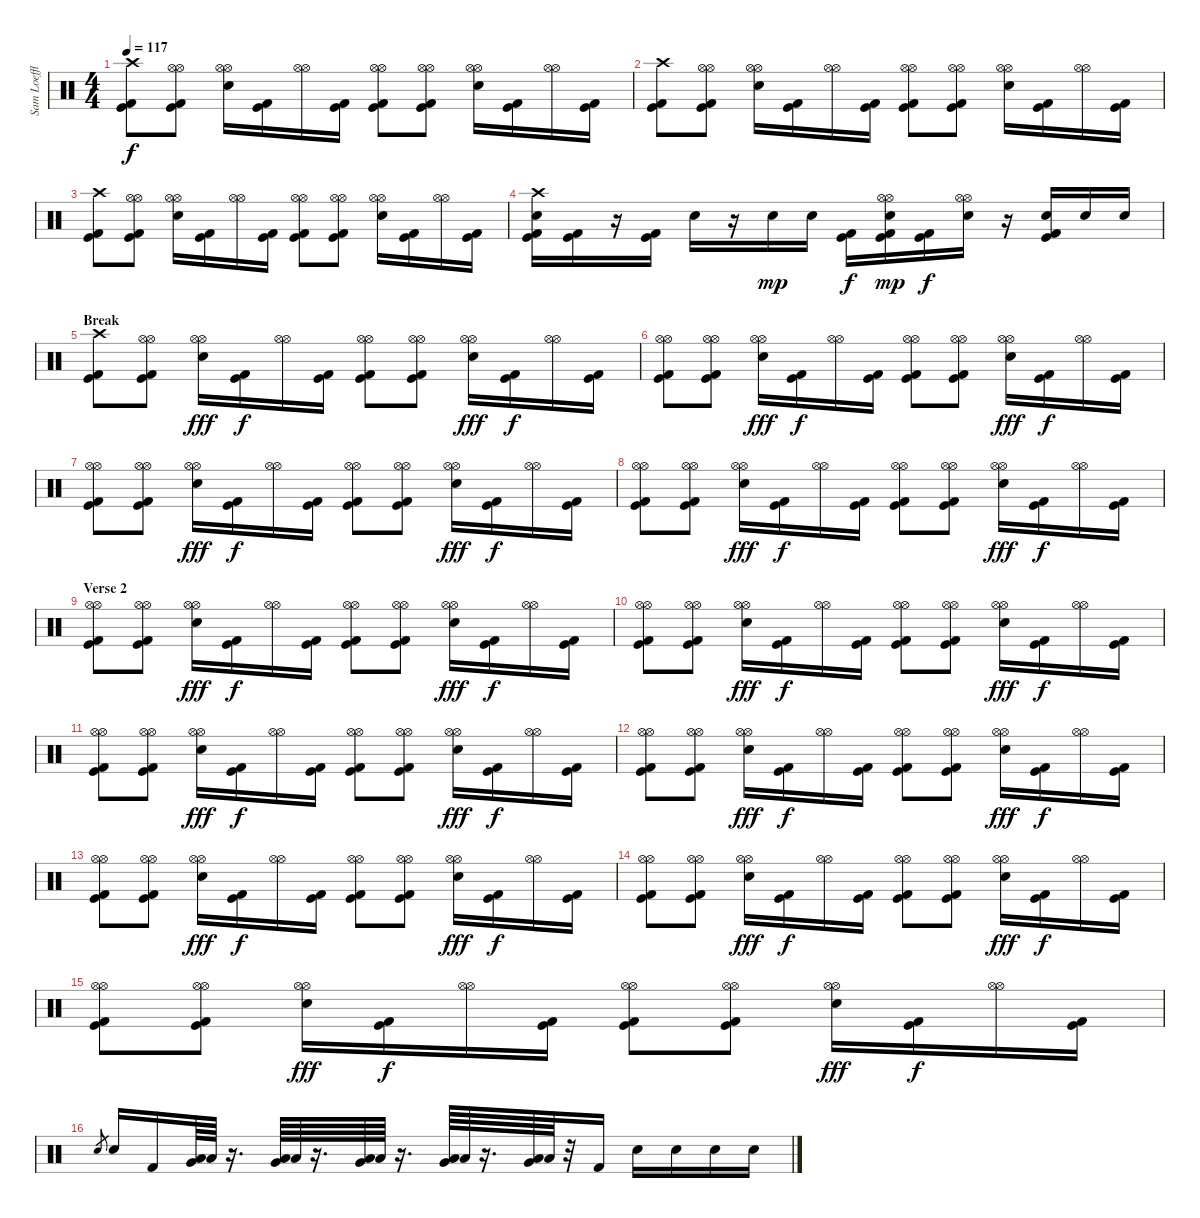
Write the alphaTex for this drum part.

\track ("Sam Loeffler - Drums" "Sam Loeffl") {instrument percussion}
\staff {score}
\articulation defaults
\ts (4 4)
\tempo 117
\clef neutral
\ks c
("Crash high (hit)" "Kick (hit)" "Kick (hit) 2").8{dy f} ("Hi-Hat (open)" "Hi-Hat (open)" "Kick (hit)" "Kick (hit) 2").8 ("Hi-Hat (open)" "Hi-Hat (open)" "Electric Snare (hit)").16 ("Kick (hit)" "Kick (hit) 2").16 ("Hi-Hat (open)" "Hi-Hat (open)").16 ("Kick (hit)" "Kick (hit) 2").16 ("Hi-Hat (open)" "Hi-Hat (open)" "Kick (hit)" "Kick (hit) 2").8 ("Hi-Hat (open)" "Hi-Hat (open)" "Kick (hit)" "Kick (hit) 2").8 ("Hi-Hat (open)" "Hi-Hat (open)" "Electric Snare (hit)").16 ("Kick (hit)" "Kick (hit) 2").16 ("Hi-Hat (open)" "Hi-Hat (open)").16 ("Kick (hit)" "Kick (hit) 2").16 |
("Crash high (hit)" "Kick (hit)" "Kick (hit) 2").8 ("Hi-Hat (open)" "Hi-Hat (open)" "Kick (hit)" "Kick (hit) 2").8 ("Hi-Hat (open)" "Hi-Hat (open)" "Electric Snare (hit)").16 ("Kick (hit)" "Kick (hit) 2").16 ("Hi-Hat (open)" "Hi-Hat (open)").16 ("Kick (hit)" "Kick (hit) 2").16 ("Hi-Hat (open)" "Hi-Hat (open)" "Kick (hit)" "Kick (hit) 2").8 ("Hi-Hat (open)" "Hi-Hat (open)" "Kick (hit)" "Kick (hit) 2").8 ("Hi-Hat (open)" "Hi-Hat (open)" "Electric Snare (hit)").16 ("Kick (hit)" "Kick (hit) 2").16 ("Hi-Hat (open)" "Hi-Hat (open)").16 ("Kick (hit)" "Kick (hit) 2").16 |
("Crash high (hit)" "Kick (hit)" "Kick (hit) 2").8 ("Hi-Hat (open)" "Hi-Hat (open)" "Kick (hit)" "Kick (hit) 2").8 ("Hi-Hat (open)" "Hi-Hat (open)" "Electric Snare (hit)").16 ("Kick (hit)" "Kick (hit) 2").16 ("Hi-Hat (open)" "Hi-Hat (open)").16 ("Kick (hit)" "Kick (hit) 2").16 ("Hi-Hat (open)" "Hi-Hat (open)" "Kick (hit)" "Kick (hit) 2").8 ("Hi-Hat (open)" "Hi-Hat (open)" "Kick (hit)" "Kick (hit) 2").8 ("Hi-Hat (open)" "Hi-Hat (open)" "Electric Snare (hit)").16 ("Kick (hit)" "Kick (hit) 2").16 ("Hi-Hat (open)" "Hi-Hat (open)").16 ("Kick (hit)" "Kick (hit) 2").16 |
("Crash high (hit)" "Electric Snare (hit)" "Kick (hit)" "Kick (hit) 2").16 ("Kick (hit)" "Kick (hit) 2").16 r.16 ("Kick (hit)" "Kick (hit) 2").16 "Electric Snare (hit)".16 r.16 "Electric Snare (hit)".16{dy mp} "Electric Snare (hit)".16 ("Kick (hit)" "Kick (hit) 2").16{dy f} ("Hi-Hat (open)" "Hi-Hat (open)" "Electric Snare (hit)" "Kick (hit)" "Kick (hit) 2").16{dy mp} ("Kick (hit)" "Kick (hit) 2").16{dy f} ("Hi-Hat (open)" "Hi-Hat (open)" "Electric Snare (hit)").16 r.16 ("Electric Snare (hit)" "Kick (hit)" "Kick (hit) 2").16 "Electric Snare (hit)".16 "Electric Snare (hit)".16 |
\section ("" "Break")
("Crash high (hit)" "Kick (hit)" "Kick (hit) 2").8 ("Hi-Hat (open)" "Hi-Hat (open)" "Kick (hit)" "Kick (hit) 2").8 ("Hi-Hat (open)" "Hi-Hat (open)" "Electric Snare (hit)").16{dy fff} ("Kick (hit)" "Kick (hit) 2").16{dy f} ("Hi-Hat (open)" "Hi-Hat (open)").16 ("Kick (hit)" "Kick (hit) 2").16 ("Hi-Hat (open)" "Hi-Hat (open)" "Kick (hit)" "Kick (hit) 2").8 ("Hi-Hat (open)" "Hi-Hat (open)" "Kick (hit)" "Kick (hit) 2").8 ("Hi-Hat (open)" "Hi-Hat (open)" "Electric Snare (hit)").16{dy fff} ("Kick (hit)" "Kick (hit) 2").16{dy f} ("Hi-Hat (open)" "Hi-Hat (open)").16 ("Kick (hit)" "Kick (hit) 2").16 |
("Hi-Hat (open)" "Hi-Hat (open)" "Kick (hit)" "Kick (hit) 2").8 ("Hi-Hat (open)" "Hi-Hat (open)" "Kick (hit)" "Kick (hit) 2").8 ("Hi-Hat (open)" "Hi-Hat (open)" "Electric Snare (hit)").16{dy fff} ("Kick (hit)" "Kick (hit) 2").16{dy f} ("Hi-Hat (open)" "Hi-Hat (open)").16 ("Kick (hit)" "Kick (hit) 2").16 ("Hi-Hat (open)" "Hi-Hat (open)" "Kick (hit)" "Kick (hit) 2").8 ("Hi-Hat (open)" "Hi-Hat (open)" "Kick (hit)" "Kick (hit) 2").8 ("Hi-Hat (open)" "Hi-Hat (open)" "Electric Snare (hit)").16{dy fff} ("Kick (hit)" "Kick (hit) 2").16{dy f} ("Hi-Hat (open)" "Hi-Hat (open)").16 ("Kick (hit)" "Kick (hit) 2").16 |
("Hi-Hat (open)" "Hi-Hat (open)" "Kick (hit)" "Kick (hit) 2").8 ("Hi-Hat (open)" "Hi-Hat (open)" "Kick (hit)" "Kick (hit) 2").8 ("Hi-Hat (open)" "Hi-Hat (open)" "Electric Snare (hit)").16{dy fff} ("Kick (hit)" "Kick (hit) 2").16{dy f} ("Hi-Hat (open)" "Hi-Hat (open)").16 ("Kick (hit)" "Kick (hit) 2").16 ("Hi-Hat (open)" "Hi-Hat (open)" "Kick (hit)" "Kick (hit) 2").8 ("Hi-Hat (open)" "Hi-Hat (open)" "Kick (hit)" "Kick (hit) 2").8 ("Hi-Hat (open)" "Hi-Hat (open)" "Electric Snare (hit)").16{dy fff} ("Kick (hit)" "Kick (hit) 2").16{dy f} ("Hi-Hat (open)" "Hi-Hat (open)").16 ("Kick (hit)" "Kick (hit) 2").16 |
("Hi-Hat (open)" "Hi-Hat (open)" "Kick (hit)" "Kick (hit) 2").8 ("Hi-Hat (open)" "Hi-Hat (open)" "Kick (hit)" "Kick (hit) 2").8 ("Hi-Hat (open)" "Hi-Hat (open)" "Electric Snare (hit)").16{dy fff} ("Kick (hit)" "Kick (hit) 2").16{dy f} ("Hi-Hat (open)" "Hi-Hat (open)").16 ("Kick (hit)" "Kick (hit) 2").16 ("Hi-Hat (open)" "Hi-Hat (open)" "Kick (hit)" "Kick (hit) 2").8 ("Hi-Hat (open)" "Hi-Hat (open)" "Kick (hit)" "Kick (hit) 2").8 ("Hi-Hat (open)" "Hi-Hat (open)" "Electric Snare (hit)").16{dy fff} ("Kick (hit)" "Kick (hit) 2").16{dy f} ("Hi-Hat (open)" "Hi-Hat (open)").16 ("Kick (hit)" "Kick (hit) 2").16 |
\section ("" "Verse 2")
("Hi-Hat (open)" "Hi-Hat (open)" "Kick (hit)" "Kick (hit) 2").8 ("Hi-Hat (open)" "Hi-Hat (open)" "Kick (hit)" "Kick (hit) 2").8 ("Hi-Hat (open)" "Hi-Hat (open)" "Electric Snare (hit)").16{dy fff} ("Kick (hit)" "Kick (hit) 2").16{dy f} ("Hi-Hat (open)" "Hi-Hat (open)").16 ("Kick (hit)" "Kick (hit) 2").16 ("Hi-Hat (open)" "Hi-Hat (open)" "Kick (hit)" "Kick (hit) 2").8 ("Hi-Hat (open)" "Hi-Hat (open)" "Kick (hit)" "Kick (hit) 2").8 ("Hi-Hat (open)" "Hi-Hat (open)" "Electric Snare (hit)").16{dy fff} ("Kick (hit)" "Kick (hit) 2").16{dy f} ("Hi-Hat (open)" "Hi-Hat (open)").16 ("Kick (hit)" "Kick (hit) 2").16 |
("Hi-Hat (open)" "Hi-Hat (open)" "Kick (hit)" "Kick (hit) 2").8 ("Hi-Hat (open)" "Hi-Hat (open)" "Kick (hit)" "Kick (hit) 2").8 ("Hi-Hat (open)" "Hi-Hat (open)" "Electric Snare (hit)").16{dy fff} ("Kick (hit)" "Kick (hit) 2").16{dy f} ("Hi-Hat (open)" "Hi-Hat (open)").16 ("Kick (hit)" "Kick (hit) 2").16 ("Hi-Hat (open)" "Hi-Hat (open)" "Kick (hit)" "Kick (hit) 2").8 ("Hi-Hat (open)" "Hi-Hat (open)" "Kick (hit)" "Kick (hit) 2").8 ("Hi-Hat (open)" "Hi-Hat (open)" "Electric Snare (hit)").16{dy fff} ("Kick (hit)" "Kick (hit) 2").16{dy f} ("Hi-Hat (open)" "Hi-Hat (open)").16 ("Kick (hit)" "Kick (hit) 2").16 |
("Hi-Hat (open)" "Hi-Hat (open)" "Kick (hit)" "Kick (hit) 2").8 ("Hi-Hat (open)" "Hi-Hat (open)" "Kick (hit)" "Kick (hit) 2").8 ("Hi-Hat (open)" "Hi-Hat (open)" "Electric Snare (hit)").16{dy fff} ("Kick (hit)" "Kick (hit) 2").16{dy f} ("Hi-Hat (open)" "Hi-Hat (open)").16 ("Kick (hit)" "Kick (hit) 2").16 ("Hi-Hat (open)" "Hi-Hat (open)" "Kick (hit)" "Kick (hit) 2").8 ("Hi-Hat (open)" "Hi-Hat (open)" "Kick (hit)" "Kick (hit) 2").8 ("Hi-Hat (open)" "Hi-Hat (open)" "Electric Snare (hit)").16{dy fff} ("Kick (hit)" "Kick (hit) 2").16{dy f} ("Hi-Hat (open)" "Hi-Hat (open)").16 ("Kick (hit)" "Kick (hit) 2").16 |
("Hi-Hat (open)" "Hi-Hat (open)" "Kick (hit)" "Kick (hit) 2").8 ("Hi-Hat (open)" "Hi-Hat (open)" "Kick (hit)" "Kick (hit) 2").8 ("Hi-Hat (open)" "Hi-Hat (open)" "Electric Snare (hit)").16{dy fff} ("Kick (hit)" "Kick (hit) 2").16{dy f} ("Hi-Hat (open)" "Hi-Hat (open)").16 ("Kick (hit)" "Kick (hit) 2").16 ("Hi-Hat (open)" "Hi-Hat (open)" "Kick (hit)" "Kick (hit) 2").8 ("Hi-Hat (open)" "Hi-Hat (open)" "Kick (hit)" "Kick (hit) 2").8 ("Hi-Hat (open)" "Hi-Hat (open)" "Electric Snare (hit)").16{dy fff} ("Kick (hit)" "Kick (hit) 2").16{dy f} ("Hi-Hat (open)" "Hi-Hat (open)").16 ("Kick (hit)" "Kick (hit) 2").16 |
("Hi-Hat (open)" "Hi-Hat (open)" "Kick (hit)" "Kick (hit) 2").8 ("Hi-Hat (open)" "Hi-Hat (open)" "Kick (hit)" "Kick (hit) 2").8 ("Hi-Hat (open)" "Hi-Hat (open)" "Electric Snare (hit)").16{dy fff} ("Kick (hit)" "Kick (hit) 2").16{dy f} ("Hi-Hat (open)" "Hi-Hat (open)").16 ("Kick (hit)" "Kick (hit) 2").16 ("Hi-Hat (open)" "Hi-Hat (open)" "Kick (hit)" "Kick (hit) 2").8 ("Hi-Hat (open)" "Hi-Hat (open)" "Kick (hit)" "Kick (hit) 2").8 ("Hi-Hat (open)" "Hi-Hat (open)" "Electric Snare (hit)").16{dy fff} ("Kick (hit)" "Kick (hit) 2").16{dy f} ("Hi-Hat (open)" "Hi-Hat (open)").16 ("Kick (hit)" "Kick (hit) 2").16 |
("Hi-Hat (open)" "Hi-Hat (open)" "Kick (hit)" "Kick (hit) 2").8 ("Hi-Hat (open)" "Hi-Hat (open)" "Kick (hit)" "Kick (hit) 2").8 ("Hi-Hat (open)" "Hi-Hat (open)" "Electric Snare (hit)").16{dy fff} ("Kick (hit)" "Kick (hit) 2").16{dy f} ("Hi-Hat (open)" "Hi-Hat (open)").16 ("Kick (hit)" "Kick (hit) 2").16 ("Hi-Hat (open)" "Hi-Hat (open)" "Kick (hit)" "Kick (hit) 2").8 ("Hi-Hat (open)" "Hi-Hat (open)" "Kick (hit)" "Kick (hit) 2").8 ("Hi-Hat (open)" "Hi-Hat (open)" "Electric Snare (hit)").16{dy fff} ("Kick (hit)" "Kick (hit) 2").16{dy f} ("Hi-Hat (open)" "Hi-Hat (open)").16 ("Kick (hit)" "Kick (hit) 2").16 |
("Hi-Hat (open)" "Hi-Hat (open)" "Kick (hit)" "Kick (hit) 2").8 ("Hi-Hat (open)" "Hi-Hat (open)" "Kick (hit)" "Kick (hit) 2").8 ("Hi-Hat (open)" "Hi-Hat (open)" "Electric Snare (hit)").16{dy fff} ("Kick (hit)" "Kick (hit) 2").16{dy f} ("Hi-Hat (open)" "Hi-Hat (open)").16 ("Kick (hit)" "Kick (hit) 2").16 ("Hi-Hat (open)" "Hi-Hat (open)" "Kick (hit)" "Kick (hit) 2").8 ("Hi-Hat (open)" "Hi-Hat (open)" "Kick (hit)" "Kick (hit) 2").8 ("Hi-Hat (open)" "Hi-Hat (open)" "Electric Snare (hit)").16{dy fff} ("Kick (hit)" "Kick (hit) 2").16{dy f} ("Hi-Hat (open)" "Hi-Hat (open)").16 ("Kick (hit)" "Kick (hit) 2").16 |
"Electric Snare (hit)".8{gr} "Electric Snare (hit)".16 "Kick (hit) 2".16 ("Very Low Tom (hit)" "Low Floor Tom (hit)").64 "Low Floor Tom (hit)".64 r.16{d} ("Very Low Tom (hit)" "Low Floor Tom (hit)").64 "Low Floor Tom (hit)".64 r.16{d} ("Very Low Tom (hit)" "Low Floor Tom (hit)").64 "Low Floor Tom (hit)".64 r.16{d} ("Very Low Tom (hit)" "Low Floor Tom (hit)").64 "Low Floor Tom (hit)".64 r.16{d} ("Very Low Tom (hit)" "Low Floor Tom (hit)").64 "Low Floor Tom (hit)".64 r.32 "Kick (hit) 2".16 "Electric Snare (hit)".16 "Electric Snare (hit)".16 "Electric Snare (hit)".16 "Electric Snare (hit)".16
